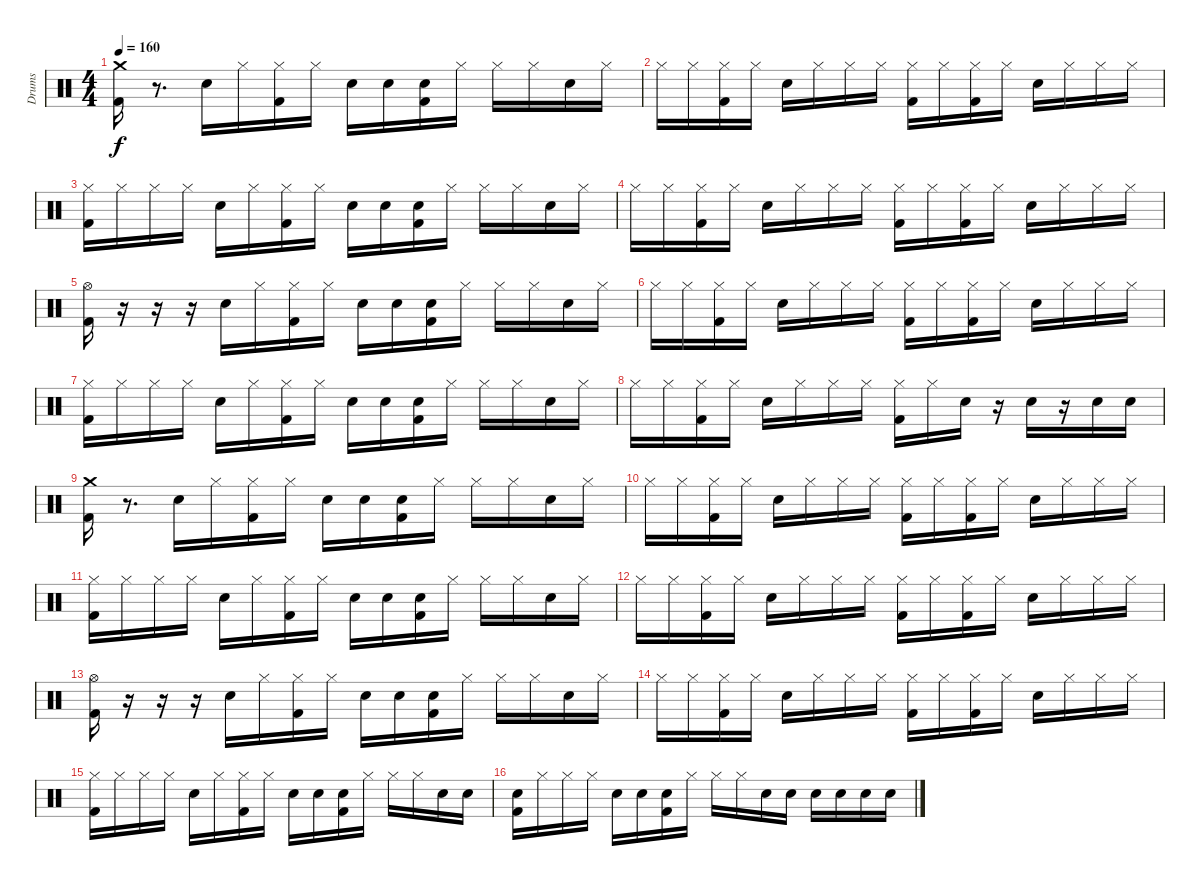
\track ("Drums" "Drums") {instrument percussion}
\staff {score}
\articulation defaults
\ts (4 4)
\tempo 160
\clef neutral
\ks c
("Crash medium (hit)" "Kick (hit) 2").16{dy f} r.8{d} "Electric Snare (hit)".16 "Hi-Hat (closed)".16 ("Hi-Hat (closed)" "Kick (hit) 2").16 "Hi-Hat (closed)".16 "Electric Snare (hit)".16 "Electric Snare (hit)".16 ("Electric Snare (hit)" "Kick (hit) 2").16 "Hi-Hat (closed)".16 "Hi-Hat (closed)".16 "Hi-Hat (closed)".16 "Electric Snare (hit)".16 "Hi-Hat (closed)".16 |
"Hi-Hat (closed)".16 "Hi-Hat (closed)".16 ("Hi-Hat (closed)" "Kick (hit) 2").16 "Hi-Hat (closed)".16 "Electric Snare (hit)".16 "Hi-Hat (closed)".16 "Hi-Hat (closed)".16 "Hi-Hat (closed)".16 ("Hi-Hat (closed)" "Kick (hit) 2").16 "Hi-Hat (closed)".16 ("Hi-Hat (closed)" "Kick (hit) 2").16 "Hi-Hat (closed)".16 "Electric Snare (hit)".16 "Hi-Hat (closed)".16 "Hi-Hat (closed)".16 "Hi-Hat (closed)".16 |
("Hi-Hat (closed)" "Kick (hit) 2").16 "Hi-Hat (closed)".16 "Hi-Hat (closed)".16 "Hi-Hat (closed)".16 "Electric Snare (hit)".16 "Hi-Hat (closed)".16 ("Hi-Hat (closed)" "Kick (hit) 2").16 "Hi-Hat (closed)".16 "Electric Snare (hit)".16 "Electric Snare (hit)".16 ("Electric Snare (hit)" "Kick (hit) 2").16 "Hi-Hat (closed)".16 "Hi-Hat (closed)".16 "Hi-Hat (closed)".16 "Electric Snare (hit)".16 "Hi-Hat (closed)".16 |
"Hi-Hat (closed)".16 "Hi-Hat (closed)".16 ("Hi-Hat (closed)" "Kick (hit) 2").16 "Hi-Hat (closed)".16 "Electric Snare (hit)".16 "Hi-Hat (closed)".16 "Hi-Hat (closed)".16 "Hi-Hat (closed)".16 ("Hi-Hat (closed)" "Kick (hit) 2").16 "Hi-Hat (closed)".16 ("Hi-Hat (closed)" "Kick (hit) 2").16 "Hi-Hat (closed)".16 "Electric Snare (hit)".16 "Hi-Hat (closed)".16 "Hi-Hat (closed)".16 "Hi-Hat (closed)".16 |
("Hi-Hat (open)" "Kick (hit) 2").16 r.16 r.16 r.16 "Electric Snare (hit)".16 "Hi-Hat (closed)".16 ("Hi-Hat (closed)" "Kick (hit) 2").16 "Hi-Hat (closed)".16 "Electric Snare (hit)".16 "Electric Snare (hit)".16 ("Electric Snare (hit)" "Kick (hit) 2").16 "Hi-Hat (closed)".16 "Hi-Hat (closed)".16 "Hi-Hat (closed)".16 "Electric Snare (hit)".16 "Hi-Hat (closed)".16 |
"Hi-Hat (closed)".16 "Hi-Hat (closed)".16 ("Hi-Hat (closed)" "Kick (hit) 2").16 "Hi-Hat (closed)".16 "Electric Snare (hit)".16 "Hi-Hat (closed)".16 "Hi-Hat (closed)".16 "Hi-Hat (closed)".16 ("Hi-Hat (closed)" "Kick (hit) 2").16 "Hi-Hat (closed)".16 ("Hi-Hat (closed)" "Kick (hit) 2").16 "Hi-Hat (closed)".16 "Electric Snare (hit)".16 "Hi-Hat (closed)".16 "Hi-Hat (closed)".16 "Hi-Hat (closed)".16 |
("Hi-Hat (closed)" "Kick (hit) 2").16 "Hi-Hat (closed)".16 "Hi-Hat (closed)".16 "Hi-Hat (closed)".16 "Electric Snare (hit)".16 "Hi-Hat (closed)".16 ("Hi-Hat (closed)" "Kick (hit) 2").16 "Hi-Hat (closed)".16 "Electric Snare (hit)".16 "Electric Snare (hit)".16 ("Electric Snare (hit)" "Kick (hit) 2").16 "Hi-Hat (closed)".16 "Hi-Hat (closed)".16 "Hi-Hat (closed)".16 "Electric Snare (hit)".16 "Hi-Hat (closed)".16 |
"Hi-Hat (closed)".16 "Hi-Hat (closed)".16 ("Hi-Hat (closed)" "Kick (hit) 2").16 "Hi-Hat (closed)".16 "Electric Snare (hit)".16 "Hi-Hat (closed)".16 "Hi-Hat (closed)".16 "Hi-Hat (closed)".16 ("Hi-Hat (closed)" "Kick (hit) 2").16 "Hi-Hat (closed)".16 "Electric Snare (hit)".16 r.16 "Electric Snare (hit)".16 r.16 "Electric Snare (hit)".16 "Electric Snare (hit)".16 |
("Crash medium (hit)" "Kick (hit) 2").16 r.8{d} "Electric Snare (hit)".16 "Hi-Hat (closed)".16 ("Hi-Hat (closed)" "Kick (hit) 2").16 "Hi-Hat (closed)".16 "Electric Snare (hit)".16 "Electric Snare (hit)".16 ("Electric Snare (hit)" "Kick (hit) 2").16 "Hi-Hat (closed)".16 "Hi-Hat (closed)".16 "Hi-Hat (closed)".16 "Electric Snare (hit)".16 "Hi-Hat (closed)".16 |
"Hi-Hat (closed)".16 "Hi-Hat (closed)".16 ("Hi-Hat (closed)" "Kick (hit) 2").16 "Hi-Hat (closed)".16 "Electric Snare (hit)".16 "Hi-Hat (closed)".16 "Hi-Hat (closed)".16 "Hi-Hat (closed)".16 ("Hi-Hat (closed)" "Kick (hit) 2").16 "Hi-Hat (closed)".16 ("Hi-Hat (closed)" "Kick (hit) 2").16 "Hi-Hat (closed)".16 "Electric Snare (hit)".16 "Hi-Hat (closed)".16 "Hi-Hat (closed)".16 "Hi-Hat (closed)".16 |
("Hi-Hat (closed)" "Kick (hit) 2").16 "Hi-Hat (closed)".16 "Hi-Hat (closed)".16 "Hi-Hat (closed)".16 "Electric Snare (hit)".16 "Hi-Hat (closed)".16 ("Hi-Hat (closed)" "Kick (hit) 2").16 "Hi-Hat (closed)".16 "Electric Snare (hit)".16 "Electric Snare (hit)".16 ("Electric Snare (hit)" "Kick (hit) 2").16 "Hi-Hat (closed)".16 "Hi-Hat (closed)".16 "Hi-Hat (closed)".16 "Electric Snare (hit)".16 "Hi-Hat (closed)".16 |
"Hi-Hat (closed)".16 "Hi-Hat (closed)".16 ("Hi-Hat (closed)" "Kick (hit) 2").16 "Hi-Hat (closed)".16 "Electric Snare (hit)".16 "Hi-Hat (closed)".16 "Hi-Hat (closed)".16 "Hi-Hat (closed)".16 ("Hi-Hat (closed)" "Kick (hit) 2").16 "Hi-Hat (closed)".16 ("Hi-Hat (closed)" "Kick (hit) 2").16 "Hi-Hat (closed)".16 "Electric Snare (hit)".16 "Hi-Hat (closed)".16 "Hi-Hat (closed)".16 "Hi-Hat (closed)".16 |
("Hi-Hat (open)" "Kick (hit) 2").16 r.16 r.16 r.16 "Electric Snare (hit)".16 "Hi-Hat (closed)".16 ("Hi-Hat (closed)" "Kick (hit) 2").16 "Hi-Hat (closed)".16 "Electric Snare (hit)".16 "Electric Snare (hit)".16 ("Electric Snare (hit)" "Kick (hit) 2").16 "Hi-Hat (closed)".16 "Hi-Hat (closed)".16 "Hi-Hat (closed)".16 "Electric Snare (hit)".16 "Hi-Hat (closed)".16 |
"Hi-Hat (closed)".16 "Hi-Hat (closed)".16 ("Hi-Hat (closed)" "Kick (hit) 2").16 "Hi-Hat (closed)".16 "Electric Snare (hit)".16 "Hi-Hat (closed)".16 "Hi-Hat (closed)".16 "Hi-Hat (closed)".16 ("Hi-Hat (closed)" "Kick (hit) 2").16 "Hi-Hat (closed)".16 ("Hi-Hat (closed)" "Kick (hit) 2").16 "Hi-Hat (closed)".16 "Electric Snare (hit)".16 "Hi-Hat (closed)".16 "Hi-Hat (closed)".16 "Hi-Hat (closed)".16 |
("Hi-Hat (closed)" "Kick (hit) 2").16 "Hi-Hat (closed)".16 "Hi-Hat (closed)".16 "Hi-Hat (closed)".16 "Electric Snare (hit)".16 "Hi-Hat (closed)".16 ("Hi-Hat (closed)" "Kick (hit) 2").16 "Hi-Hat (closed)".16 "Electric Snare (hit)".16 "Electric Snare (hit)".16 ("Electric Snare (hit)" "Kick (hit) 2").16 "Hi-Hat (closed)".16 "Hi-Hat (closed)".16 "Hi-Hat (closed)".16 "Electric Snare (hit)".16 "Electric Snare (hit)".16 |
("Electric Snare (hit)" "Kick (hit) 2").16 "Hi-Hat (closed)".16 "Hi-Hat (closed)".16 "Hi-Hat (closed)".16 "Electric Snare (hit)".16 "Electric Snare (hit)".16 ("Electric Snare (hit)" "Kick (hit) 2").16 "Hi-Hat (closed)".16 "Hi-Hat (closed)".16 "Hi-Hat (closed)".16 "Electric Snare (hit)".16 "Electric Snare (hit)".16 "Electric Snare (hit)".16 "Electric Snare (hit)".16 "Electric Snare (hit)".16 "Electric Snare (hit)".16
